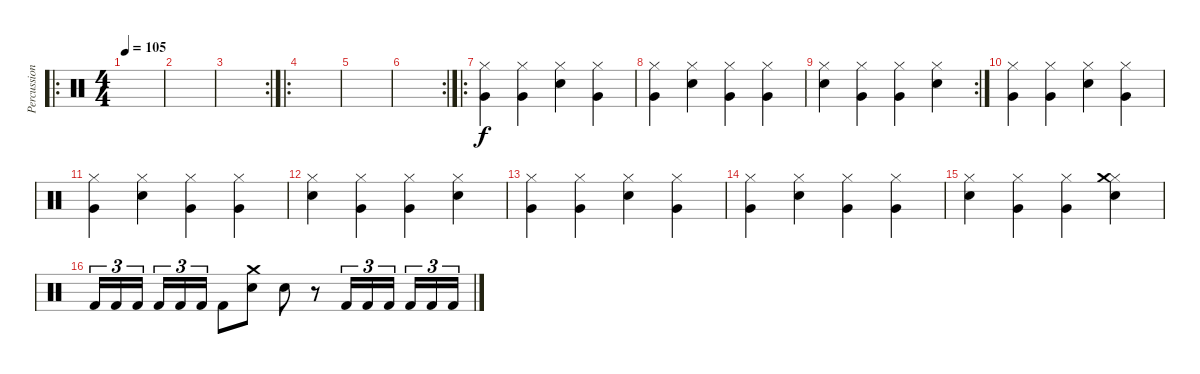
\track ("Percussions" "Percussion") {instrument percussion}
\staff {score}
\articulation defaults
\ro
\ts (4 4)
\tempo 105
\clef neutral
\ks c
|
|
\rc 2
|
\ro
|
|
\rc 2
|
\ro
("Very Low Tom (hit)" "Hi-Hat (closed)").4 ("Very Low Tom (hit)" "Hi-Hat (closed)").4 ("Electric Snare (hit)" "Hi-Hat (closed)").4 ("Very Low Tom (hit)" "Hi-Hat (closed)").4 |
("Very Low Tom (hit)" "Hi-Hat (closed)").4 ("Electric Snare (hit)" "Hi-Hat (closed)").4 ("Very Low Tom (hit)" "Hi-Hat (closed)").4 ("Very Low Tom (hit)" "Hi-Hat (closed)").4 |
\rc 2
("Electric Snare (hit)" "Hi-Hat (closed)").4 ("Very Low Tom (hit)" "Hi-Hat (closed)").4 ("Very Low Tom (hit)" "Hi-Hat (closed)").4 ("Electric Snare (hit)" "Hi-Hat (closed)").4 |
("Very Low Tom (hit)" "Hi-Hat (closed)").4 ("Very Low Tom (hit)" "Hi-Hat (closed)").4 ("Electric Snare (hit)" "Hi-Hat (closed)").4 ("Very Low Tom (hit)" "Hi-Hat (closed)").4 |
("Very Low Tom (hit)" "Hi-Hat (closed)").4 ("Electric Snare (hit)" "Hi-Hat (closed)").4 ("Very Low Tom (hit)" "Hi-Hat (closed)").4 ("Very Low Tom (hit)" "Hi-Hat (closed)").4 |
("Electric Snare (hit)" "Hi-Hat (closed)").4 ("Very Low Tom (hit)" "Hi-Hat (closed)").4 ("Very Low Tom (hit)" "Hi-Hat (closed)").4 ("Electric Snare (hit)" "Hi-Hat (closed)").4 |
("Very Low Tom (hit)" "Hi-Hat (closed)").4 ("Very Low Tom (hit)" "Hi-Hat (closed)").4 ("Electric Snare (hit)" "Hi-Hat (closed)").4 ("Very Low Tom (hit)" "Hi-Hat (closed)").4 |
("Very Low Tom (hit)" "Hi-Hat (closed)").4 ("Electric Snare (hit)" "Hi-Hat (closed)").4 ("Very Low Tom (hit)" "Hi-Hat (closed)").4 ("Very Low Tom (hit)" "Hi-Hat (closed)").4 |
("Electric Snare (hit)" "Hi-Hat (closed)").4 ("Very Low Tom (hit)" "Hi-Hat (closed)").4 ("Very Low Tom (hit)" "Hi-Hat (closed)").4 ("Electric Snare (hit)" "Hi-Hat (closed)" "Crash medium (hit)").4 |
"Kick (hit) 2".16{tu (3 2)} "Kick (hit) 2".16{tu (3 2)} "Kick (hit) 2".16{tu (3 2)} "Kick (hit) 2".16{tu (3 2)} "Kick (hit) 2".16{tu (3 2)} "Kick (hit) 2".16{tu (3 2)} "Kick (hit) 2".8 ("Electric Snare (hit)" "Crash medium (hit)").8 "Electric Snare (hit)".8 r.8 "Kick (hit) 2".16{tu (3 2)} "Kick (hit) 2".16{tu (3 2)} "Kick (hit) 2".16{tu (3 2)} "Kick (hit) 2".16{tu (3 2)} "Kick (hit) 2".16{tu (3 2)} "Kick (hit) 2".16{tu (3 2)}
